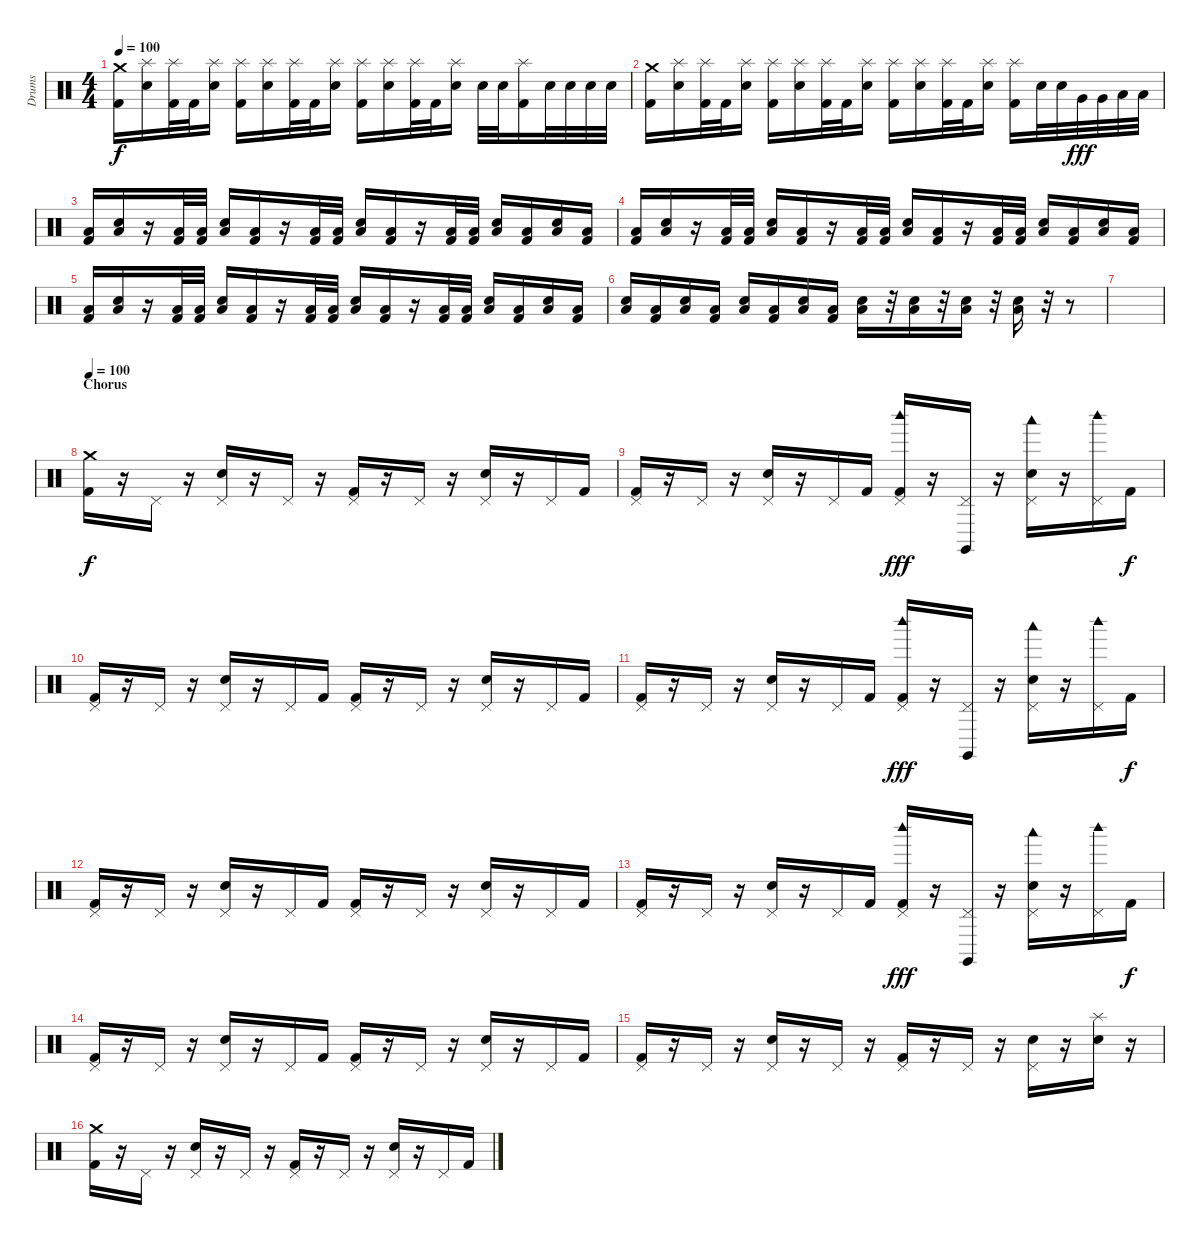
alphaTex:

\track ("Drums" "Drums") {instrument percussion}
\staff {score}
\articulation defaults
\ts (4 4)
\tempo 100
\clef neutral
\ks c
("Crash medium (hit)" "Kick (hit) 2").16{dy f} ("Splash (hit)" "Electric Snare (hit)").16 ("Splash (hit)" "Kick (hit) 2").32 "Kick (hit) 2".32 ("Splash (hit)" "Electric Snare (hit)").16 ("Splash (hit)" "Kick (hit) 2").16 ("Splash (hit)" "Electric Snare (hit)").16 ("Splash (hit)" "Kick (hit) 2").32 "Kick (hit) 2".32 ("Splash (hit)" "Electric Snare (hit)").16 ("Splash (hit)" "Kick (hit) 2").16 ("Splash (hit)" "Electric Snare (hit)").16 ("Splash (hit)" "Kick (hit) 2").32 "Kick (hit) 2".32 ("Splash (hit)" "Electric Snare (hit)").16 "Electric Snare (hit)".32 "Electric Snare (hit)".32 ("Splash (hit)" "Kick (hit) 2").16 "Electric Snare (hit)".32 "Electric Snare (hit)".32 "Electric Snare (hit)".32 "Electric Snare (hit)".32 |
("Crash medium (hit)" "Kick (hit) 2").16 ("Splash (hit)" "Electric Snare (hit)").16 ("Splash (hit)" "Kick (hit) 2").32 "Kick (hit) 2".32 ("Splash (hit)" "Electric Snare (hit)").16 ("Splash (hit)" "Kick (hit) 2").16 ("Splash (hit)" "Electric Snare (hit)").16 ("Splash (hit)" "Kick (hit) 2").32 "Kick (hit) 2".32 ("Splash (hit)" "Electric Snare (hit)").16 ("Splash (hit)" "Kick (hit) 2").16 ("Splash (hit)" "Electric Snare (hit)").16 ("Splash (hit)" "Kick (hit) 2").32 "Kick (hit) 2".32 ("Splash (hit)" "Electric Snare (hit)").16 ("Splash (hit)" "Kick (hit) 2").16 "Electric Snare (hit)".32 "Electric Snare (hit)".32 "Very Low Tom (hit)".32{dy fff} "Very Low Tom (hit)".32 "Low Floor Tom (hit)".32 "Low Floor Tom (hit)".32 |
("Low Floor Tom (hit)" "Kick (hit) 2").16 ("Electric Snare (hit)" "Low Floor Tom (hit)").16 r.16 ("Low Floor Tom (hit)" "Kick (hit) 2").32 ("Low Floor Tom (hit)" "Kick (hit) 2").32 ("Electric Snare (hit)" "Low Floor Tom (hit)").16 ("Low Floor Tom (hit)" "Kick (hit) 2").16 r.16 ("Low Floor Tom (hit)" "Kick (hit) 2").32 ("Low Floor Tom (hit)" "Kick (hit) 2").32 ("Electric Snare (hit)" "Low Floor Tom (hit)").16 ("Low Floor Tom (hit)" "Kick (hit) 2").16 r.16 ("Low Floor Tom (hit)" "Kick (hit) 2").32 ("Low Floor Tom (hit)" "Kick (hit) 2").32 ("Electric Snare (hit)" "Low Floor Tom (hit)").16 ("Low Floor Tom (hit)" "Kick (hit) 2").16 ("Electric Snare (hit)" "Low Floor Tom (hit)").16 ("Low Floor Tom (hit)" "Kick (hit) 2").16 |
("Low Floor Tom (hit)" "Kick (hit) 2").16 ("Electric Snare (hit)" "Low Floor Tom (hit)").16 r.16 ("Low Floor Tom (hit)" "Kick (hit) 2").32 ("Low Floor Tom (hit)" "Kick (hit) 2").32 ("Electric Snare (hit)" "Low Floor Tom (hit)").16 ("Low Floor Tom (hit)" "Kick (hit) 2").16 r.16 ("Low Floor Tom (hit)" "Kick (hit) 2").32 ("Low Floor Tom (hit)" "Kick (hit) 2").32 ("Electric Snare (hit)" "Low Floor Tom (hit)").16 ("Low Floor Tom (hit)" "Kick (hit) 2").16 r.16 ("Low Floor Tom (hit)" "Kick (hit) 2").32 ("Low Floor Tom (hit)" "Kick (hit) 2").32 ("Electric Snare (hit)" "Low Floor Tom (hit)").16 ("Low Floor Tom (hit)" "Kick (hit) 2").16 ("Electric Snare (hit)" "Low Floor Tom (hit)").16 ("Low Floor Tom (hit)" "Kick (hit) 2").16 |
("Low Floor Tom (hit)" "Kick (hit) 2").16 ("Electric Snare (hit)" "Low Floor Tom (hit)").16 r.16 ("Low Floor Tom (hit)" "Kick (hit) 2").32 ("Low Floor Tom (hit)" "Kick (hit) 2").32 ("Electric Snare (hit)" "Low Floor Tom (hit)").16 ("Low Floor Tom (hit)" "Kick (hit) 2").16 r.16 ("Low Floor Tom (hit)" "Kick (hit) 2").32 ("Low Floor Tom (hit)" "Kick (hit) 2").32 ("Electric Snare (hit)" "Low Floor Tom (hit)").16 ("Low Floor Tom (hit)" "Kick (hit) 2").16 r.16 ("Low Floor Tom (hit)" "Kick (hit) 2").32 ("Low Floor Tom (hit)" "Kick (hit) 2").32 ("Electric Snare (hit)" "Low Floor Tom (hit)").16 ("Low Floor Tom (hit)" "Kick (hit) 2").16 ("Electric Snare (hit)" "Low Floor Tom (hit)").16 ("Low Floor Tom (hit)" "Kick (hit) 2").16 |
("Electric Snare (hit)" "Low Floor Tom (hit)").16 ("Low Floor Tom (hit)" "Kick (hit) 2").16 ("Electric Snare (hit)" "Low Floor Tom (hit)").16 ("Low Floor Tom (hit)" "Kick (hit) 2").16 ("Electric Snare (hit)" "Low Floor Tom (hit)").16 ("Low Floor Tom (hit)" "Kick (hit) 2").16 ("Electric Snare (hit)" "Low Floor Tom (hit)").16 ("Low Floor Tom (hit)" "Kick (hit) 2").16 ("Electric Snare (hit)" "Low Floor Tom (hit)").16 r.32 ("Electric Snare (hit)" "Low Floor Tom (hit)").16 r.32 ("Electric Snare (hit)" "Low Floor Tom (hit)").16 r.32 ("Electric Snare (hit)" "Low Floor Tom (hit)").16 r.32 r.8 |
|
\section ("" "Chorus")
\tempo 100
("Crash medium (hit)" "Kick (hit) 2").16{dy f} r.16 "Pedal Hi-Hat (hit)".16 r.16 ("Pedal Hi-Hat (hit)" "Electric Snare (hit)").16 r.16 "Pedal Hi-Hat (hit)".16 r.16 ("Pedal Hi-Hat (hit)" "Kick (hit) 2").16 r.16 "Pedal Hi-Hat (hit)".16 r.16 ("Pedal Hi-Hat (hit)" "Electric Snare (hit)").16 r.16 "Pedal Hi-Hat (hit)".16 "Kick (hit) 2".16 |
("Pedal Hi-Hat (hit)" "Kick (hit) 2").16 r.16 "Pedal Hi-Hat (hit)".16 r.16 ("Pedal Hi-Hat (hit)" "Electric Snare (hit)").16 r.16 "Pedal Hi-Hat (hit)".16 "Kick (hit) 2".16 ("Pedal Hi-Hat (hit)" "Woodblock high (hit)" "Kick (hit) 2").16{dy fff} r.16 ("Pedal Hi-Hat (hit)" "Claves (hit)").16 r.16 ("Pedal Hi-Hat (hit)" "Woodblock low (hit)" "Electric Snare (hit)").16 r.16 ("Pedal Hi-Hat (hit)" "Woodblock high (hit)").16 "Kick (hit) 2".16{dy f} |
("Pedal Hi-Hat (hit)" "Kick (hit) 2").16 r.16 "Pedal Hi-Hat (hit)".16 r.16 ("Pedal Hi-Hat (hit)" "Electric Snare (hit)").16 r.16 "Pedal Hi-Hat (hit)".16 "Kick (hit) 2".16 ("Pedal Hi-Hat (hit)" "Kick (hit) 2").16 r.16 "Pedal Hi-Hat (hit)".16 r.16 ("Pedal Hi-Hat (hit)" "Electric Snare (hit)").16 r.16 "Pedal Hi-Hat (hit)".16 "Kick (hit) 2".16 |
("Pedal Hi-Hat (hit)" "Kick (hit) 2").16 r.16 "Pedal Hi-Hat (hit)".16 r.16 ("Pedal Hi-Hat (hit)" "Electric Snare (hit)").16 r.16 "Pedal Hi-Hat (hit)".16 "Kick (hit) 2".16 ("Pedal Hi-Hat (hit)" "Woodblock high (hit)" "Kick (hit) 2").16{dy fff} r.16 ("Pedal Hi-Hat (hit)" "Claves (hit)").16 r.16 ("Pedal Hi-Hat (hit)" "Woodblock low (hit)" "Electric Snare (hit)").16 r.16 ("Pedal Hi-Hat (hit)" "Woodblock high (hit)").16 "Kick (hit) 2".16{dy f} |
("Pedal Hi-Hat (hit)" "Kick (hit) 2").16 r.16 "Pedal Hi-Hat (hit)".16 r.16 ("Pedal Hi-Hat (hit)" "Electric Snare (hit)").16 r.16 "Pedal Hi-Hat (hit)".16 "Kick (hit) 2".16 ("Pedal Hi-Hat (hit)" "Kick (hit) 2").16 r.16 "Pedal Hi-Hat (hit)".16 r.16 ("Pedal Hi-Hat (hit)" "Electric Snare (hit)").16 r.16 "Pedal Hi-Hat (hit)".16 "Kick (hit) 2".16 |
("Pedal Hi-Hat (hit)" "Kick (hit) 2").16 r.16 "Pedal Hi-Hat (hit)".16 r.16 ("Pedal Hi-Hat (hit)" "Electric Snare (hit)").16 r.16 "Pedal Hi-Hat (hit)".16 "Kick (hit) 2".16 ("Pedal Hi-Hat (hit)" "Woodblock high (hit)" "Kick (hit) 2").16{dy fff} r.16 ("Pedal Hi-Hat (hit)" "Claves (hit)").16 r.16 ("Pedal Hi-Hat (hit)" "Woodblock low (hit)" "Electric Snare (hit)").16 r.16 ("Pedal Hi-Hat (hit)" "Woodblock high (hit)").16 "Kick (hit) 2".16{dy f} |
("Pedal Hi-Hat (hit)" "Kick (hit) 2").16 r.16 "Pedal Hi-Hat (hit)".16 r.16 ("Pedal Hi-Hat (hit)" "Electric Snare (hit)").16 r.16 "Pedal Hi-Hat (hit)".16 "Kick (hit) 2".16 ("Pedal Hi-Hat (hit)" "Kick (hit) 2").16 r.16 "Pedal Hi-Hat (hit)".16 r.16 ("Pedal Hi-Hat (hit)" "Electric Snare (hit)").16 r.16 "Pedal Hi-Hat (hit)".16 "Kick (hit) 2".16 |
("Pedal Hi-Hat (hit)" "Kick (hit) 2").16 r.16 "Pedal Hi-Hat (hit)".16 r.16 ("Pedal Hi-Hat (hit)" "Electric Snare (hit)").16 r.16 "Pedal Hi-Hat (hit)".16 r.16 ("Pedal Hi-Hat (hit)" "Kick (hit) 2").16 r.16 "Pedal Hi-Hat (hit)".16 r.16 ("Pedal Hi-Hat (hit)" "Electric Snare (hit)").16 r.16 ("Splash (hit)" "Electric Snare (hit)").16 r.16 |
("Crash medium (hit)" "Kick (hit) 2").16 r.16 "Pedal Hi-Hat (hit)".16 r.16 ("Pedal Hi-Hat (hit)" "Electric Snare (hit)").16 r.16 "Pedal Hi-Hat (hit)".16 r.16 ("Pedal Hi-Hat (hit)" "Kick (hit) 2").16 r.16 "Pedal Hi-Hat (hit)".16 r.16 ("Pedal Hi-Hat (hit)" "Electric Snare (hit)").16 r.16 "Pedal Hi-Hat (hit)".16 "Kick (hit) 2".16
